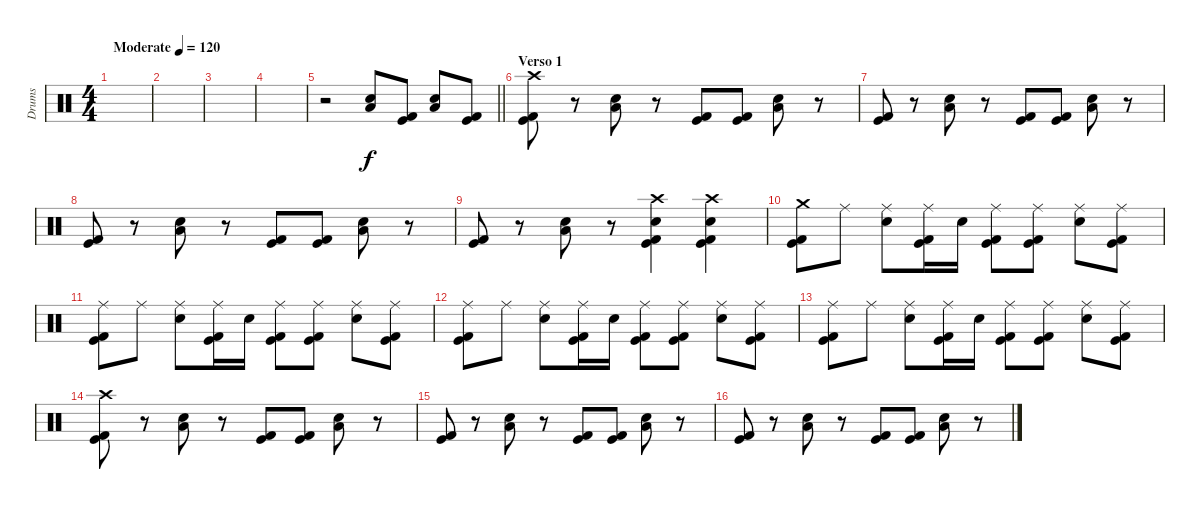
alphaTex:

\track ("Drums" "Drums") {instrument percussion}
\staff {score}
\articulation defaults
\ts (4 4)
\tempo (120 "Moderate")
\clef neutral
\ks c
|
|
|
|
\barLineRight lightlight
r.2 ("Electric Snare (hit)" "Low Tom (hit)").8 ("Kick (hit)" "Kick (hit) 2").8 ("Electric Snare (hit)" "Low Tom (hit)").8 ("Kick (hit)" "Kick (hit) 2").8 |
\section ("" "Verso 1")
("Crash high (hit)" "Kick (hit)" "Kick (hit) 2").8 r.8 ("Electric Snare (hit)" "Low Tom (hit)").8 r.8 ("Kick (hit)" "Kick (hit) 2").8 ("Kick (hit)" "Kick (hit) 2").8 ("Electric Snare (hit)" "Low Tom (hit)").8 r.8 |
("Kick (hit)" "Kick (hit) 2").8 r.8 ("Electric Snare (hit)" "Low Tom (hit)").8 r.8 ("Kick (hit)" "Kick (hit) 2").8 ("Kick (hit)" "Kick (hit) 2").8 ("Electric Snare (hit)" "Low Tom (hit)").8 r.8 |
("Kick (hit)" "Kick (hit) 2").8 r.8 ("Electric Snare (hit)" "Low Tom (hit)").8 r.8 ("Kick (hit)" "Kick (hit) 2").8 ("Kick (hit)" "Kick (hit) 2").8 ("Electric Snare (hit)" "Low Tom (hit)").8 r.8 |
("Kick (hit)" "Kick (hit) 2").8 r.8 ("Electric Snare (hit)" "Low Tom (hit)").8 r.8 ("Crash high (hit)" "Electric Snare (hit)" "Kick (hit)" "Kick (hit) 2").4 ("Crash high (hit)" "Electric Snare (hit)" "Kick (hit)" "Kick (hit) 2").4 |
("Crash medium (hit)" "Kick (hit)" "Kick (hit) 2").8 "Ride (middle)".8 ("Ride (middle)" "Electric Snare (hit)").8 ("Ride (middle)" "Kick (hit)" "Kick (hit) 2").16 "Electric Snare (hit)".16 ("Ride (middle)" "Kick (hit)" "Kick (hit) 2").8 ("Ride (middle)" "Kick (hit)" "Kick (hit) 2").8 ("Ride (middle)" "Electric Snare (hit)").8 ("Ride (middle)" "Kick (hit)" "Kick (hit) 2").8 |
("Ride (middle)" "Kick (hit)" "Kick (hit) 2").8 "Ride (middle)".8 ("Ride (middle)" "Electric Snare (hit)").8 ("Ride (middle)" "Kick (hit)" "Kick (hit) 2").16 "Electric Snare (hit)".16 ("Ride (middle)" "Kick (hit)" "Kick (hit) 2").8 ("Ride (middle)" "Kick (hit)" "Kick (hit) 2").8 ("Ride (middle)" "Electric Snare (hit)").8 ("Ride (middle)" "Kick (hit)" "Kick (hit) 2").8 |
("Ride (middle)" "Kick (hit)" "Kick (hit) 2").8 "Ride (middle)".8 ("Ride (middle)" "Electric Snare (hit)").8 ("Ride (middle)" "Kick (hit)" "Kick (hit) 2").16 "Electric Snare (hit)".16 ("Ride (middle)" "Kick (hit)" "Kick (hit) 2").8 ("Ride (middle)" "Kick (hit)" "Kick (hit) 2").8 ("Ride (middle)" "Electric Snare (hit)").8 ("Ride (middle)" "Kick (hit)" "Kick (hit) 2").8 |
("Ride (middle)" "Kick (hit)" "Kick (hit) 2").8 "Ride (middle)".8 ("Ride (middle)" "Electric Snare (hit)").8 ("Ride (middle)" "Kick (hit)" "Kick (hit) 2").16 "Electric Snare (hit)".16 ("Ride (middle)" "Kick (hit)" "Kick (hit) 2").8 ("Ride (middle)" "Kick (hit)" "Kick (hit) 2").8 ("Ride (middle)" "Electric Snare (hit)").8 ("Ride (middle)" "Kick (hit)" "Kick (hit) 2").8 |
("Crash high (hit)" "Kick (hit)" "Kick (hit) 2").8 r.8 ("Electric Snare (hit)" "Low Tom (hit)").8 r.8 ("Kick (hit)" "Kick (hit) 2").8 ("Kick (hit)" "Kick (hit) 2").8 ("Electric Snare (hit)" "Low Tom (hit)").8 r.8 |
("Kick (hit)" "Kick (hit) 2").8 r.8 ("Electric Snare (hit)" "Low Tom (hit)").8 r.8 ("Kick (hit)" "Kick (hit) 2").8 ("Kick (hit)" "Kick (hit) 2").8 ("Electric Snare (hit)" "Low Tom (hit)").8 r.8 |
("Kick (hit)" "Kick (hit) 2").8 r.8 ("Electric Snare (hit)" "Low Tom (hit)").8 r.8 ("Kick (hit)" "Kick (hit) 2").8 ("Kick (hit)" "Kick (hit) 2").8 ("Electric Snare (hit)" "Low Tom (hit)").8 r.8
